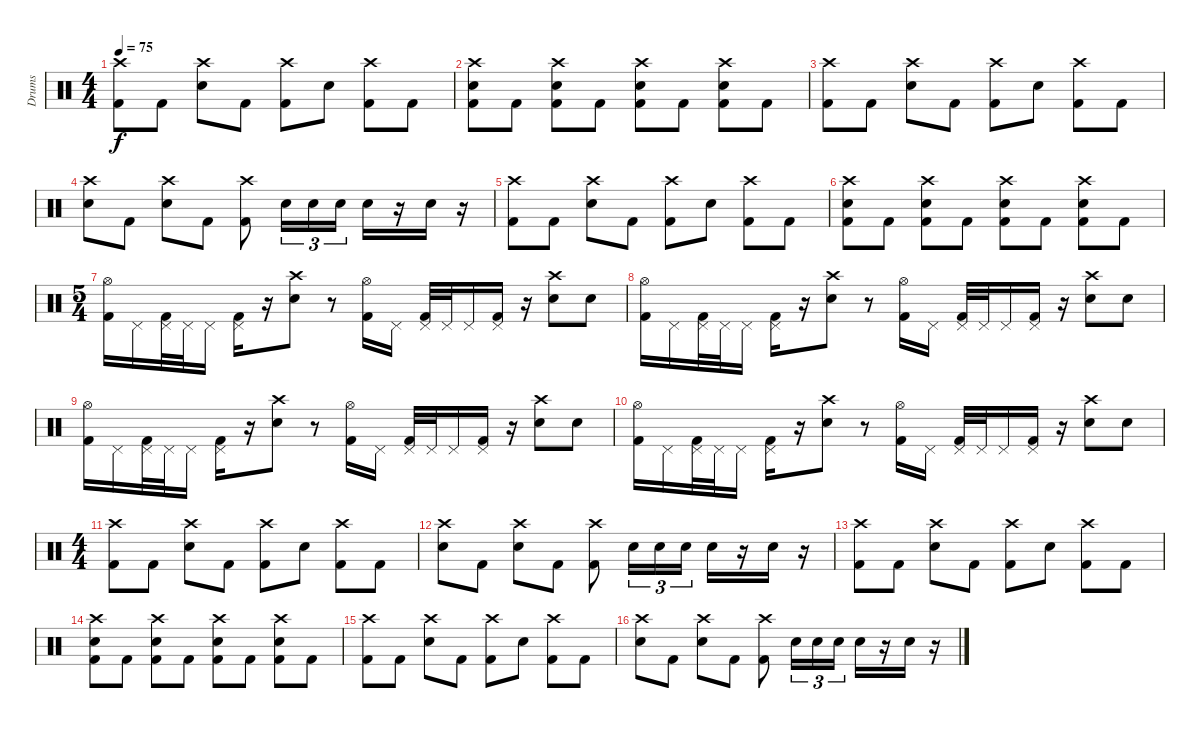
\track ("Drums" "Drums") {instrument percussion}
\staff {score}
\articulation defaults
\ts (4 4)
\tempo 75
\clef neutral
\ks c
("Crash high (hit)" "Kick (hit) 2").8{dy f} "Kick (hit) 2".8 ("Crash high (hit)" "Electric Snare (hit)").8 "Kick (hit) 2".8 ("Crash high (hit)" "Kick (hit) 2").8 "Electric Snare (hit)".8 ("Crash high (hit)" "Kick (hit) 2").8 "Kick (hit) 2".8 |
("Crash high (hit)" "Electric Snare (hit)" "Kick (hit) 2").8 "Kick (hit) 2".8 ("Crash high (hit)" "Electric Snare (hit)" "Kick (hit) 2").8 "Kick (hit) 2".8 ("Crash high (hit)" "Electric Snare (hit)" "Kick (hit) 2").8 "Kick (hit) 2".8 ("Crash high (hit)" "Electric Snare (hit)" "Kick (hit) 2").8 "Kick (hit) 2".8 |
("Crash high (hit)" "Kick (hit) 2").8 "Kick (hit) 2".8 ("Crash high (hit)" "Electric Snare (hit)").8 "Kick (hit) 2".8 ("Crash high (hit)" "Kick (hit) 2").8 "Electric Snare (hit)".8 ("Crash high (hit)" "Kick (hit) 2").8 "Kick (hit) 2".8 |
("Crash high (hit)" "Electric Snare (hit)").8 "Kick (hit) 2".8 ("Crash high (hit)" "Electric Snare (hit)").8 "Kick (hit) 2".8 ("Crash high (hit)" "Kick (hit) 2").8 "Electric Snare (hit)".16{tu (3 2)} "Electric Snare (hit)".16{tu (3 2)} "Electric Snare (hit)".16{tu (3 2)} "Electric Snare (hit)".16 r.16 "Electric Snare (hit)".16 r.16 |
("Crash high (hit)" "Kick (hit) 2").8 "Kick (hit) 2".8 ("Crash high (hit)" "Electric Snare (hit)").8 "Kick (hit) 2".8 ("Crash high (hit)" "Kick (hit) 2").8 "Electric Snare (hit)".8 ("Crash high (hit)" "Kick (hit) 2").8 "Kick (hit) 2".8 |
("Crash high (hit)" "Electric Snare (hit)" "Kick (hit) 2").8 "Kick (hit) 2".8 ("Crash high (hit)" "Electric Snare (hit)" "Kick (hit) 2").8 "Kick (hit) 2".8 ("Crash high (hit)" "Electric Snare (hit)" "Kick (hit) 2").8 "Kick (hit) 2".8 ("Crash high (hit)" "Electric Snare (hit)" "Kick (hit) 2").8 "Kick (hit) 2".8 |
\ts (5 4)
("Hi-Hat (open)" "Kick (hit) 2").16 "Pedal Hi-Hat (hit)".16 ("Pedal Hi-Hat (hit)" "Kick (hit) 2").32 "Pedal Hi-Hat (hit)".32 "Pedal Hi-Hat (hit)".16 ("Pedal Hi-Hat (hit)" "Kick (hit) 2").16 r.16 ("Crash high (hit)" "Electric Snare (hit)").8 r.8 ("Hi-Hat (open)" "Kick (hit) 2").16 "Pedal Hi-Hat (hit)".16 ("Pedal Hi-Hat (hit)" "Kick (hit) 2").32 "Pedal Hi-Hat (hit)".32 "Pedal Hi-Hat (hit)".16 ("Pedal Hi-Hat (hit)" "Kick (hit) 2").16 r.16 ("Crash high (hit)" "Electric Snare (hit)").8 "Electric Snare (hit)".8 |
("Hi-Hat (open)" "Kick (hit) 2").16 "Pedal Hi-Hat (hit)".16 ("Pedal Hi-Hat (hit)" "Kick (hit) 2").32 "Pedal Hi-Hat (hit)".32 "Pedal Hi-Hat (hit)".16 ("Pedal Hi-Hat (hit)" "Kick (hit) 2").16 r.16 ("Crash high (hit)" "Electric Snare (hit)").8 r.8 ("Hi-Hat (open)" "Kick (hit) 2").16 "Pedal Hi-Hat (hit)".16 ("Pedal Hi-Hat (hit)" "Kick (hit) 2").32 "Pedal Hi-Hat (hit)".32 "Pedal Hi-Hat (hit)".16 ("Pedal Hi-Hat (hit)" "Kick (hit) 2").16 r.16 ("Crash high (hit)" "Electric Snare (hit)").8 "Electric Snare (hit)".8 |
("Hi-Hat (open)" "Kick (hit) 2").16 "Pedal Hi-Hat (hit)".16 ("Pedal Hi-Hat (hit)" "Kick (hit) 2").32 "Pedal Hi-Hat (hit)".32 "Pedal Hi-Hat (hit)".16 ("Pedal Hi-Hat (hit)" "Kick (hit) 2").16 r.16 ("Crash high (hit)" "Electric Snare (hit)").8 r.8 ("Hi-Hat (open)" "Kick (hit) 2").16 "Pedal Hi-Hat (hit)".16 ("Pedal Hi-Hat (hit)" "Kick (hit) 2").32 "Pedal Hi-Hat (hit)".32 "Pedal Hi-Hat (hit)".16 ("Pedal Hi-Hat (hit)" "Kick (hit) 2").16 r.16 ("Crash high (hit)" "Electric Snare (hit)").8 "Electric Snare (hit)".8 |
("Hi-Hat (open)" "Kick (hit) 2").16 "Pedal Hi-Hat (hit)".16 ("Pedal Hi-Hat (hit)" "Kick (hit) 2").32 "Pedal Hi-Hat (hit)".32 "Pedal Hi-Hat (hit)".16 ("Pedal Hi-Hat (hit)" "Kick (hit) 2").16 r.16 ("Crash high (hit)" "Electric Snare (hit)").8 r.8 ("Hi-Hat (open)" "Kick (hit) 2").16 "Pedal Hi-Hat (hit)".16 ("Pedal Hi-Hat (hit)" "Kick (hit) 2").32 "Pedal Hi-Hat (hit)".32 "Pedal Hi-Hat (hit)".16 ("Pedal Hi-Hat (hit)" "Kick (hit) 2").16 r.16 ("Crash high (hit)" "Electric Snare (hit)").8 "Electric Snare (hit)".8 |
\ts (4 4)
("Crash high (hit)" "Kick (hit) 2").8 "Kick (hit) 2".8 ("Crash high (hit)" "Electric Snare (hit)").8 "Kick (hit) 2".8 ("Crash high (hit)" "Kick (hit) 2").8 "Electric Snare (hit)".8 ("Crash high (hit)" "Kick (hit) 2").8 "Kick (hit) 2".8 |
("Crash high (hit)" "Electric Snare (hit)").8 "Kick (hit) 2".8 ("Crash high (hit)" "Electric Snare (hit)").8 "Kick (hit) 2".8 ("Crash high (hit)" "Kick (hit) 2").8 "Electric Snare (hit)".16{tu (3 2)} "Electric Snare (hit)".16{tu (3 2)} "Electric Snare (hit)".16{tu (3 2)} "Electric Snare (hit)".16 r.16 "Electric Snare (hit)".16 r.16 |
("Crash high (hit)" "Kick (hit) 2").8 "Kick (hit) 2".8 ("Crash high (hit)" "Electric Snare (hit)").8 "Kick (hit) 2".8 ("Crash high (hit)" "Kick (hit) 2").8 "Electric Snare (hit)".8 ("Crash high (hit)" "Kick (hit) 2").8 "Kick (hit) 2".8 |
("Crash high (hit)" "Electric Snare (hit)" "Kick (hit) 2").8 "Kick (hit) 2".8 ("Crash high (hit)" "Electric Snare (hit)" "Kick (hit) 2").8 "Kick (hit) 2".8 ("Crash high (hit)" "Electric Snare (hit)" "Kick (hit) 2").8 "Kick (hit) 2".8 ("Crash high (hit)" "Electric Snare (hit)" "Kick (hit) 2").8 "Kick (hit) 2".8 |
("Crash high (hit)" "Kick (hit) 2").8 "Kick (hit) 2".8 ("Crash high (hit)" "Electric Snare (hit)").8 "Kick (hit) 2".8 ("Crash high (hit)" "Kick (hit) 2").8 "Electric Snare (hit)".8 ("Crash high (hit)" "Kick (hit) 2").8 "Kick (hit) 2".8 |
("Crash high (hit)" "Electric Snare (hit)").8 "Kick (hit) 2".8 ("Crash high (hit)" "Electric Snare (hit)").8 "Kick (hit) 2".8 ("Crash high (hit)" "Kick (hit) 2").8 "Electric Snare (hit)".16{tu (3 2)} "Electric Snare (hit)".16{tu (3 2)} "Electric Snare (hit)".16{tu (3 2)} "Electric Snare (hit)".16 r.16 "Electric Snare (hit)".16 r.16
